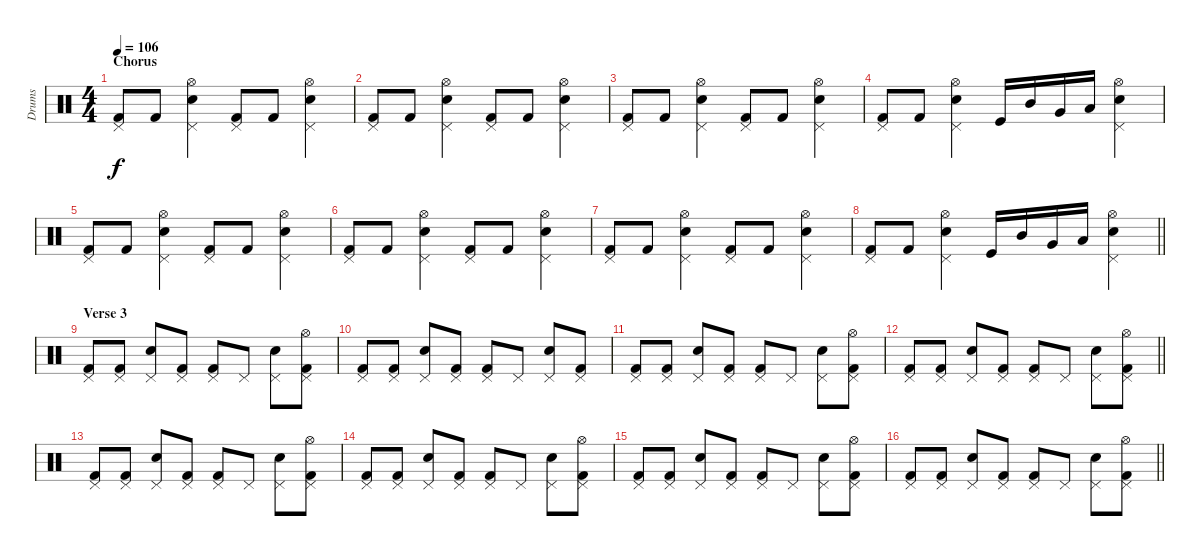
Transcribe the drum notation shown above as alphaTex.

\track ("Drums" "Drums") {instrument percussion}
\staff {score}
\articulation defaults
\ts (4 4)
\section ("" "Chorus")
\tempo 106
\clef neutral
\ks c
("Kick (hit) 2" "Pedal Hi-Hat (hit)").8{dy f} "Kick (hit) 2".8 ("Pedal Hi-Hat (hit)" "Electric Snare (hit)" "Hi-Hat (open)").4 ("Kick (hit) 2" "Pedal Hi-Hat (hit)").8 "Kick (hit) 2".8 ("Pedal Hi-Hat (hit)" "Electric Snare (hit)" "Hi-Hat (open)").4 |
("Kick (hit) 2" "Pedal Hi-Hat (hit)").8 "Kick (hit) 2".8 ("Pedal Hi-Hat (hit)" "Electric Snare (hit)" "Hi-Hat (open)").4 ("Kick (hit) 2" "Pedal Hi-Hat (hit)").8 "Kick (hit) 2".8 ("Pedal Hi-Hat (hit)" "Electric Snare (hit)" "Hi-Hat (open)").4 |
("Kick (hit) 2" "Pedal Hi-Hat (hit)").8 "Kick (hit) 2".8 ("Pedal Hi-Hat (hit)" "Electric Snare (hit)" "Hi-Hat (open)").4 ("Kick (hit) 2" "Pedal Hi-Hat (hit)").8 "Kick (hit) 2".8 ("Pedal Hi-Hat (hit)" "Electric Snare (hit)" "Hi-Hat (open)").4 |
("Kick (hit) 2" "Pedal Hi-Hat (hit)").8 "Kick (hit) 2".8 ("Pedal Hi-Hat (hit)" "Electric Snare (hit)" "Hi-Hat (open)").4 "Kick (hit)".16 "Mid Tom (hit)".16 "Very Low Tom (hit)".16 "Low Tom (hit)".16 ("Pedal Hi-Hat (hit)" "Electric Snare (hit)" "Hi-Hat (open)").4 |
("Kick (hit) 2" "Pedal Hi-Hat (hit)").8 "Kick (hit) 2".8 ("Pedal Hi-Hat (hit)" "Electric Snare (hit)" "Hi-Hat (open)").4 ("Kick (hit) 2" "Pedal Hi-Hat (hit)").8 "Kick (hit) 2".8 ("Pedal Hi-Hat (hit)" "Electric Snare (hit)" "Hi-Hat (open)").4 |
("Kick (hit) 2" "Pedal Hi-Hat (hit)").8 "Kick (hit) 2".8 ("Pedal Hi-Hat (hit)" "Electric Snare (hit)" "Hi-Hat (open)").4 ("Kick (hit) 2" "Pedal Hi-Hat (hit)").8 "Kick (hit) 2".8 ("Pedal Hi-Hat (hit)" "Electric Snare (hit)" "Hi-Hat (open)").4 |
("Kick (hit) 2" "Pedal Hi-Hat (hit)").8 "Kick (hit) 2".8 ("Pedal Hi-Hat (hit)" "Electric Snare (hit)" "Hi-Hat (open)").4 ("Kick (hit) 2" "Pedal Hi-Hat (hit)").8 "Kick (hit) 2".8 ("Pedal Hi-Hat (hit)" "Electric Snare (hit)" "Hi-Hat (open)").4 |
\barLineRight lightlight
("Kick (hit) 2" "Pedal Hi-Hat (hit)").8 "Kick (hit) 2".8 ("Pedal Hi-Hat (hit)" "Electric Snare (hit)" "Hi-Hat (open)").4 "Kick (hit)".16 "Mid Tom (hit)".16 "Very Low Tom (hit)".16 "Low Tom (hit)".16 ("Pedal Hi-Hat (hit)" "Electric Snare (hit)" "Hi-Hat (open)").4 |
\section ("" "Verse 3")
("Pedal Hi-Hat (hit)" "Kick (hit) 2").8 ("Pedal Hi-Hat (hit)" "Kick (hit) 2").8 ("Pedal Hi-Hat (hit)" "Electric Snare (hit)").8 ("Pedal Hi-Hat (hit)" "Kick (hit) 2").8 ("Pedal Hi-Hat (hit)" "Kick (hit) 2").8 "Pedal Hi-Hat (hit)".8 ("Pedal Hi-Hat (hit)" "Electric Snare (hit)").8 ("Pedal Hi-Hat (hit)" "Hi-Hat (open)" "Kick (hit) 2").8 |
("Pedal Hi-Hat (hit)" "Kick (hit) 2").8 ("Pedal Hi-Hat (hit)" "Kick (hit) 2").8 ("Pedal Hi-Hat (hit)" "Electric Snare (hit)").8 ("Pedal Hi-Hat (hit)" "Kick (hit) 2").8 ("Pedal Hi-Hat (hit)" "Kick (hit) 2").8 "Pedal Hi-Hat (hit)".8 ("Pedal Hi-Hat (hit)" "Electric Snare (hit)").8 ("Pedal Hi-Hat (hit)" "Kick (hit) 2").8 |
("Pedal Hi-Hat (hit)" "Kick (hit) 2").8 ("Pedal Hi-Hat (hit)" "Kick (hit) 2").8 ("Pedal Hi-Hat (hit)" "Electric Snare (hit)").8 ("Pedal Hi-Hat (hit)" "Kick (hit) 2").8 ("Pedal Hi-Hat (hit)" "Kick (hit) 2").8 "Pedal Hi-Hat (hit)".8 ("Pedal Hi-Hat (hit)" "Electric Snare (hit)").8 ("Pedal Hi-Hat (hit)" "Hi-Hat (open)" "Kick (hit) 2").8 |
\barLineRight lightlight
("Pedal Hi-Hat (hit)" "Kick (hit) 2").8 ("Pedal Hi-Hat (hit)" "Kick (hit) 2").8 ("Pedal Hi-Hat (hit)" "Electric Snare (hit)").8 ("Pedal Hi-Hat (hit)" "Kick (hit) 2").8 ("Pedal Hi-Hat (hit)" "Kick (hit) 2").8 "Pedal Hi-Hat (hit)".8 ("Pedal Hi-Hat (hit)" "Electric Snare (hit)").8 ("Pedal Hi-Hat (hit)" "Hi-Hat (open)" "Kick (hit) 2").8 |
("Pedal Hi-Hat (hit)" "Kick (hit) 2").8 ("Pedal Hi-Hat (hit)" "Kick (hit) 2").8 ("Pedal Hi-Hat (hit)" "Electric Snare (hit)").8 ("Pedal Hi-Hat (hit)" "Kick (hit) 2").8 ("Pedal Hi-Hat (hit)" "Kick (hit) 2").8 "Pedal Hi-Hat (hit)".8 ("Pedal Hi-Hat (hit)" "Electric Snare (hit)").8 ("Pedal Hi-Hat (hit)" "Hi-Hat (open)" "Kick (hit) 2").8 |
("Pedal Hi-Hat (hit)" "Kick (hit) 2").8 ("Pedal Hi-Hat (hit)" "Kick (hit) 2").8 ("Pedal Hi-Hat (hit)" "Electric Snare (hit)").8 ("Pedal Hi-Hat (hit)" "Kick (hit) 2").8 ("Pedal Hi-Hat (hit)" "Kick (hit) 2").8 "Pedal Hi-Hat (hit)".8 ("Pedal Hi-Hat (hit)" "Electric Snare (hit)").8 ("Pedal Hi-Hat (hit)" "Hi-Hat (open)" "Kick (hit) 2").8 |
("Pedal Hi-Hat (hit)" "Kick (hit) 2").8 ("Pedal Hi-Hat (hit)" "Kick (hit) 2").8 ("Pedal Hi-Hat (hit)" "Electric Snare (hit)").8 ("Pedal Hi-Hat (hit)" "Kick (hit) 2").8 ("Pedal Hi-Hat (hit)" "Kick (hit) 2").8 "Pedal Hi-Hat (hit)".8 ("Pedal Hi-Hat (hit)" "Electric Snare (hit)").8 ("Pedal Hi-Hat (hit)" "Hi-Hat (open)" "Kick (hit) 2").8 |
\barLineRight lightlight
("Pedal Hi-Hat (hit)" "Kick (hit) 2").8 ("Pedal Hi-Hat (hit)" "Kick (hit) 2").8 ("Pedal Hi-Hat (hit)" "Electric Snare (hit)").8 ("Pedal Hi-Hat (hit)" "Kick (hit) 2").8 ("Pedal Hi-Hat (hit)" "Kick (hit) 2").8 "Pedal Hi-Hat (hit)".8 ("Pedal Hi-Hat (hit)" "Electric Snare (hit)").8 ("Pedal Hi-Hat (hit)" "Hi-Hat (open)" "Kick (hit) 2").8
